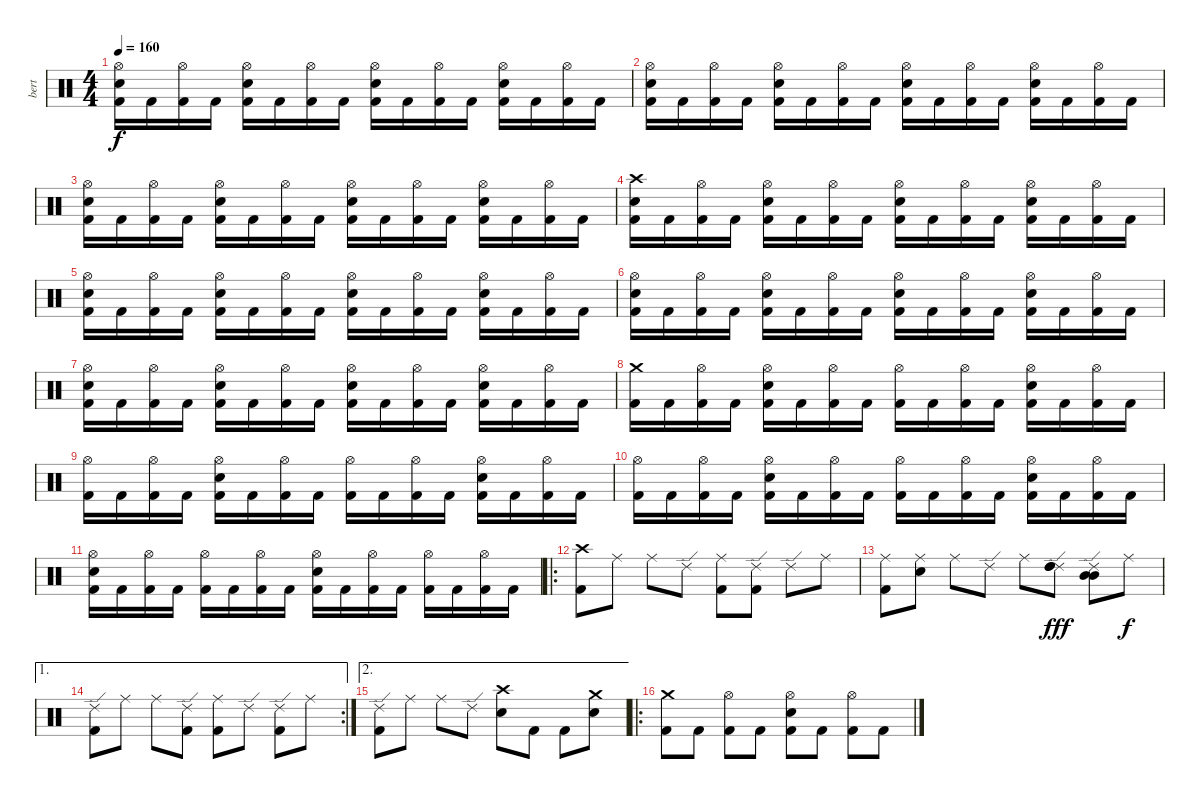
\track ("bert" "bert") {instrument percussion}
\staff {score}
\articulation defaults
\ts (4 4)
\tempo 160
\clef neutral
\ks c
("Hi-Hat (open)" "Snare (hit) 2" "Kick (hit) 2").16{dy f} "Kick (hit) 2".16 ("Hi-Hat (open)" "Kick (hit) 2").16 "Kick (hit) 2".16 ("Hi-Hat (open)" "Snare (hit) 2" "Kick (hit) 2").16 "Kick (hit) 2".16 ("Hi-Hat (open)" "Kick (hit) 2").16 "Kick (hit) 2".16 ("Hi-Hat (open)" "Snare (hit) 2" "Kick (hit) 2").16 "Kick (hit) 2".16 ("Hi-Hat (open)" "Kick (hit) 2").16 "Kick (hit) 2".16 ("Hi-Hat (open)" "Snare (hit) 2" "Kick (hit) 2").16 "Kick (hit) 2".16 ("Hi-Hat (open)" "Kick (hit) 2").16 "Kick (hit) 2".16 |
("Hi-Hat (open)" "Snare (hit) 2" "Kick (hit) 2").16 "Kick (hit) 2".16 ("Hi-Hat (open)" "Kick (hit) 2").16 "Kick (hit) 2".16 ("Hi-Hat (open)" "Snare (hit) 2" "Kick (hit) 2").16 "Kick (hit) 2".16 ("Hi-Hat (open)" "Kick (hit) 2").16 "Kick (hit) 2".16 ("Hi-Hat (open)" "Snare (hit) 2" "Kick (hit) 2").16 "Kick (hit) 2".16 ("Hi-Hat (open)" "Kick (hit) 2").16 "Kick (hit) 2".16 ("Hi-Hat (open)" "Snare (hit) 2" "Kick (hit) 2").16 "Kick (hit) 2".16 ("Hi-Hat (open)" "Kick (hit) 2").16 "Kick (hit) 2".16 |
("Hi-Hat (open)" "Snare (hit) 2" "Kick (hit) 2").16 "Kick (hit) 2".16 ("Hi-Hat (open)" "Kick (hit) 2").16 "Kick (hit) 2".16 ("Hi-Hat (open)" "Snare (hit) 2" "Kick (hit) 2").16 "Kick (hit) 2".16 ("Hi-Hat (open)" "Kick (hit) 2").16 "Kick (hit) 2".16 ("Hi-Hat (open)" "Snare (hit) 2" "Kick (hit) 2").16 "Kick (hit) 2".16 ("Hi-Hat (open)" "Kick (hit) 2").16 "Kick (hit) 2".16 ("Hi-Hat (open)" "Snare (hit) 2" "Kick (hit) 2").16 "Kick (hit) 2".16 ("Hi-Hat (open)" "Kick (hit) 2").16 "Kick (hit) 2".16 |
("Crash high (hit)" "Snare (hit) 2" "Kick (hit) 2").16 "Kick (hit) 2".16 ("Hi-Hat (open)" "Kick (hit) 2").16 "Kick (hit) 2".16 ("Hi-Hat (open)" "Snare (hit) 2" "Kick (hit) 2").16 "Kick (hit) 2".16 ("Hi-Hat (open)" "Kick (hit) 2").16 "Kick (hit) 2".16 ("Hi-Hat (open)" "Snare (hit) 2" "Kick (hit) 2").16 "Kick (hit) 2".16 ("Hi-Hat (open)" "Kick (hit) 2").16 "Kick (hit) 2".16 ("Hi-Hat (open)" "Snare (hit) 2" "Kick (hit) 2").16 "Kick (hit) 2".16 ("Hi-Hat (open)" "Kick (hit) 2").16 "Kick (hit) 2".16 |
("Hi-Hat (open)" "Snare (hit) 2" "Kick (hit) 2").16 "Kick (hit) 2".16 ("Hi-Hat (open)" "Kick (hit) 2").16 "Kick (hit) 2".16 ("Hi-Hat (open)" "Snare (hit) 2" "Kick (hit) 2").16 "Kick (hit) 2".16 ("Hi-Hat (open)" "Kick (hit) 2").16 "Kick (hit) 2".16 ("Hi-Hat (open)" "Snare (hit) 2" "Kick (hit) 2").16 "Kick (hit) 2".16 ("Hi-Hat (open)" "Kick (hit) 2").16 "Kick (hit) 2".16 ("Hi-Hat (open)" "Snare (hit) 2" "Kick (hit) 2").16 "Kick (hit) 2".16 ("Hi-Hat (open)" "Kick (hit) 2").16 "Kick (hit) 2".16 |
("Hi-Hat (open)" "Snare (hit) 2" "Kick (hit) 2").16 "Kick (hit) 2".16 ("Hi-Hat (open)" "Kick (hit) 2").16 "Kick (hit) 2".16 ("Hi-Hat (open)" "Snare (hit) 2" "Kick (hit) 2").16 "Kick (hit) 2".16 ("Hi-Hat (open)" "Kick (hit) 2").16 "Kick (hit) 2".16 ("Hi-Hat (open)" "Snare (hit) 2" "Kick (hit) 2").16 "Kick (hit) 2".16 ("Hi-Hat (open)" "Kick (hit) 2").16 "Kick (hit) 2".16 ("Hi-Hat (open)" "Snare (hit) 2" "Kick (hit) 2").16 "Kick (hit) 2".16 ("Hi-Hat (open)" "Kick (hit) 2").16 "Kick (hit) 2".16 |
("Hi-Hat (open)" "Snare (hit) 2" "Kick (hit) 2").16 "Kick (hit) 2".16 ("Hi-Hat (open)" "Kick (hit) 2").16 "Kick (hit) 2".16 ("Hi-Hat (open)" "Snare (hit) 2" "Kick (hit) 2").16 "Kick (hit) 2".16 ("Hi-Hat (open)" "Kick (hit) 2").16 "Kick (hit) 2".16 ("Hi-Hat (open)" "Snare (hit) 2" "Kick (hit) 2").16 "Kick (hit) 2".16 ("Hi-Hat (open)" "Kick (hit) 2").16 "Kick (hit) 2".16 ("Hi-Hat (open)" "Snare (hit) 2" "Kick (hit) 2").16 "Kick (hit) 2".16 ("Hi-Hat (open)" "Kick (hit) 2").16 "Kick (hit) 2".16 |
("Crash medium (hit)" "Kick (hit) 2").16 "Kick (hit) 2".16 ("Hi-Hat (open)" "Kick (hit) 2").16 "Kick (hit) 2".16 ("Hi-Hat (open)" "Snare (hit) 2" "Kick (hit) 2").16 "Kick (hit) 2".16 ("Hi-Hat (open)" "Kick (hit) 2").16 "Kick (hit) 2".16 ("Hi-Hat (open)" "Kick (hit) 2").16 "Kick (hit) 2".16 ("Hi-Hat (open)" "Kick (hit) 2").16 "Kick (hit) 2".16 ("Hi-Hat (open)" "Snare (hit) 2" "Kick (hit) 2").16 "Kick (hit) 2".16 ("Hi-Hat (open)" "Kick (hit) 2").16 "Kick (hit) 2".16 |
("Hi-Hat (open)" "Kick (hit) 2").16 "Kick (hit) 2".16 ("Hi-Hat (open)" "Kick (hit) 2").16 "Kick (hit) 2".16 ("Hi-Hat (open)" "Snare (hit) 2" "Kick (hit) 2").16 "Kick (hit) 2".16 ("Hi-Hat (open)" "Kick (hit) 2").16 "Kick (hit) 2".16 ("Hi-Hat (open)" "Kick (hit) 2").16 "Kick (hit) 2".16 ("Hi-Hat (open)" "Kick (hit) 2").16 "Kick (hit) 2".16 ("Hi-Hat (open)" "Snare (hit) 2" "Kick (hit) 2").16 "Kick (hit) 2".16 ("Hi-Hat (open)" "Kick (hit) 2").16 "Kick (hit) 2".16 |
("Hi-Hat (open)" "Kick (hit) 2").16 "Kick (hit) 2".16 ("Hi-Hat (open)" "Kick (hit) 2").16 "Kick (hit) 2".16 ("Hi-Hat (open)" "Snare (hit) 2" "Kick (hit) 2").16 "Kick (hit) 2".16 ("Hi-Hat (open)" "Kick (hit) 2").16 "Kick (hit) 2".16 ("Hi-Hat (open)" "Kick (hit) 2").16 "Kick (hit) 2".16 ("Hi-Hat (open)" "Kick (hit) 2").16 "Kick (hit) 2".16 ("Hi-Hat (open)" "Snare (hit) 2" "Kick (hit) 2").16 "Kick (hit) 2".16 ("Hi-Hat (open)" "Kick (hit) 2").16 "Kick (hit) 2".16 |
("Hi-Hat (open)" "Snare (hit) 2" "Kick (hit) 2").16 "Kick (hit) 2".16 ("Hi-Hat (open)" "Kick (hit) 2").16 "Kick (hit) 2".16 ("Hi-Hat (open)" "Kick (hit) 2").16 "Kick (hit) 2".16 ("Hi-Hat (open)" "Kick (hit) 2").16 "Kick (hit) 2".16 ("Hi-Hat (open)" "Snare (hit) 2" "Kick (hit) 2").16 "Kick (hit) 2".16 ("Hi-Hat (open)" "Kick (hit) 2").16 "Kick (hit) 2".16 ("Hi-Hat (open)" "Kick (hit) 2").16 "Kick (hit) 2".16 ("Hi-Hat (open)" "Kick (hit) 2").16 "Kick (hit) 2".16 |
\ro
("Crash high (hit)" "Kick (hit) 2").8 "Ride (middle)".8 "Ride (middle)".8 "Ride (edge) 2".8 ("Ride (middle)" "Kick (hit) 2").8 ("Ride (edge) 2" "Kick (hit) 2").8 "Ride (edge) 2".8 "Ride (middle)".8 |
("Ride (middle)" "Kick (hit) 2").8 ("Ride (middle)" "Snare (hit) 2").8 "Ride (middle)".8 "Ride (edge) 2".8 "Ride (middle)".8 ("Ride (edge) 2" "High Tom (hit)" "High Tom (hit)").8{dy fff} ("Ride (edge) 2" "Mid Tom (hit)" "Mid Tom (hit)").8 "Ride (middle)".8{dy f} |
\ae 1
\rc 2
("Ride (edge) 2" "Kick (hit) 2").8 "Ride (middle)".8 "Ride (middle)".8 ("Ride (edge) 2" "Kick (hit) 2").8 ("Ride (middle)" "Kick (hit) 2").8 "Ride (edge) 2".8 ("Ride (edge) 2" "Kick (hit) 2").8 "Ride (middle)".8 |
\ae 2
("Ride (edge) 2" "Kick (hit) 2").8 "Ride (middle)".8 "Ride (middle)".8 "Ride (edge) 2".8 ("Crash high (hit)" "Snare (hit) 2").8 "Kick (hit) 2".8 "Kick (hit) 2".8 ("Crash medium (hit)" "Snare (hit) 2").8 |
\ro
("Crash medium (hit)" "Kick (hit) 2").8 "Kick (hit) 2".8 ("Hi-Hat (open)" "Kick (hit) 2").8 "Kick (hit) 2".8 ("Hi-Hat (open)" "Snare (hit) 2" "Kick (hit) 2").8 "Kick (hit) 2".8 ("Hi-Hat (open)" "Kick (hit) 2").8 "Kick (hit) 2".8
